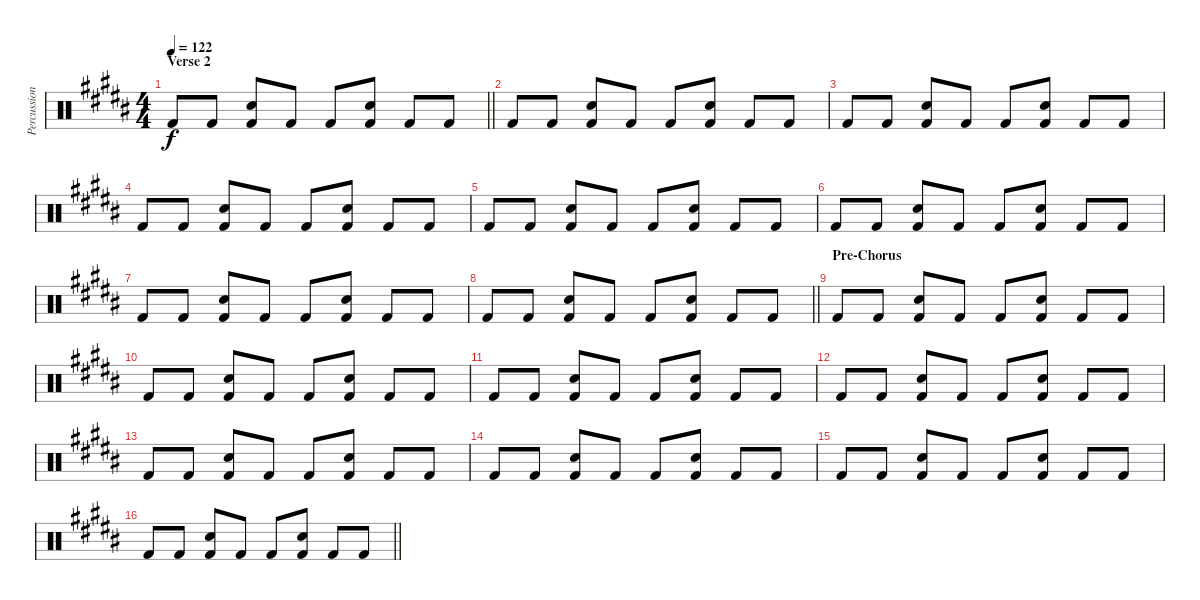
\track ("Percussion" "Percussion") {instrument percussion}
\staff {score}
\articulation defaults
\ts (4 4)
\section ("" "Verse 2")
\tempo 122
\clef neutral
\barLineRight lightlight
\ks b "Kick (hit) 2".8{dy f} "Kick (hit) 2".8
("Kick (hit) 2" "Snare (hit) 2").8 "Kick (hit) 2".8 "Kick (hit) 2".8 ("Kick (hit) 2" "Snare (hit) 2").8 "Kick (hit) 2".8 "Kick (hit) 2".8 |
\section ("" "")
"Kick (hit) 2".8 "Kick (hit) 2".8 ("Kick (hit) 2" "Snare (hit) 2").8 "Kick (hit) 2".8 "Kick (hit) 2".8 ("Kick (hit) 2" "Snare (hit) 2").8 "Kick (hit) 2".8 "Kick (hit) 2".8 |
"Kick (hit) 2".8 "Kick (hit) 2".8 ("Kick (hit) 2" "Snare (hit) 2").8 "Kick (hit) 2".8 "Kick (hit) 2".8 ("Kick (hit) 2" "Snare (hit) 2").8 "Kick (hit) 2".8 "Kick (hit) 2".8 |
"Kick (hit) 2".8 "Kick (hit) 2".8 ("Kick (hit) 2" "Snare (hit) 2").8 "Kick (hit) 2".8 "Kick (hit) 2".8 ("Kick (hit) 2" "Snare (hit) 2").8 "Kick (hit) 2".8 "Kick (hit) 2".8 |
"Kick (hit) 2".8 "Kick (hit) 2".8 ("Kick (hit) 2" "Snare (hit) 2").8 "Kick (hit) 2".8 "Kick (hit) 2".8 ("Kick (hit) 2" "Snare (hit) 2").8 "Kick (hit) 2".8 "Kick (hit) 2".8 |
"Kick (hit) 2".8 "Kick (hit) 2".8 ("Kick (hit) 2" "Snare (hit) 2").8 "Kick (hit) 2".8 "Kick (hit) 2".8 ("Kick (hit) 2" "Snare (hit) 2").8 "Kick (hit) 2".8 "Kick (hit) 2".8 |
"Kick (hit) 2".8 "Kick (hit) 2".8 ("Kick (hit) 2" "Snare (hit) 2").8 "Kick (hit) 2".8 "Kick (hit) 2".8 ("Kick (hit) 2" "Snare (hit) 2").8 "Kick (hit) 2".8 "Kick (hit) 2".8 |
\barLineRight lightlight "Kick (hit) 2".8 "Kick (hit) 2".8
("Kick (hit) 2" "Snare (hit) 2").8 "Kick (hit) 2".8 "Kick (hit) 2".8 ("Kick (hit) 2" "Snare (hit) 2").8 "Kick (hit) 2".8 "Kick (hit) 2".8 |
\section ("" "Pre-Chorus")
"Kick (hit) 2".8 "Kick (hit) 2".8 ("Kick (hit) 2" "Snare (hit) 2").8 "Kick (hit) 2".8 "Kick (hit) 2".8 ("Kick (hit) 2" "Snare (hit) 2").8 "Kick (hit) 2".8 "Kick (hit) 2".8 |
"Kick (hit) 2".8 "Kick (hit) 2".8 ("Kick (hit) 2" "Snare (hit) 2").8 "Kick (hit) 2".8 "Kick (hit) 2".8 ("Kick (hit) 2" "Snare (hit) 2").8 "Kick (hit) 2".8 "Kick (hit) 2".8 |
"Kick (hit) 2".8 "Kick (hit) 2".8 ("Kick (hit) 2" "Snare (hit) 2").8 "Kick (hit) 2".8 "Kick (hit) 2".8 ("Kick (hit) 2" "Snare (hit) 2").8 "Kick (hit) 2".8 "Kick (hit) 2".8 |
"Kick (hit) 2".8 "Kick (hit) 2".8 ("Kick (hit) 2" "Snare (hit) 2").8 "Kick (hit) 2".8 "Kick (hit) 2".8 ("Kick (hit) 2" "Snare (hit) 2").8 "Kick (hit) 2".8 "Kick (hit) 2".8 |
"Kick (hit) 2".8 "Kick (hit) 2".8 ("Kick (hit) 2" "Snare (hit) 2").8 "Kick (hit) 2".8 "Kick (hit) 2".8 ("Kick (hit) 2" "Snare (hit) 2").8 "Kick (hit) 2".8 "Kick (hit) 2".8 |
"Kick (hit) 2".8 "Kick (hit) 2".8 ("Kick (hit) 2" "Snare (hit) 2").8 "Kick (hit) 2".8 "Kick (hit) 2".8 ("Kick (hit) 2" "Snare (hit) 2").8 "Kick (hit) 2".8 "Kick (hit) 2".8 |
"Kick (hit) 2".8 "Kick (hit) 2".8 ("Kick (hit) 2" "Snare (hit) 2").8 "Kick (hit) 2".8 "Kick (hit) 2".8 ("Kick (hit) 2" "Snare (hit) 2").8 "Kick (hit) 2".8 "Kick (hit) 2".8 |
\barLineRight lightlight "Kick (hit) 2".8 "Kick (hit) 2".8
("Kick (hit) 2" "Snare (hit) 2").8 "Kick (hit) 2".8 "Kick (hit) 2".8 ("Kick (hit) 2" "Snare (hit) 2").8 "Kick (hit) 2".8 "Kick (hit) 2".8
